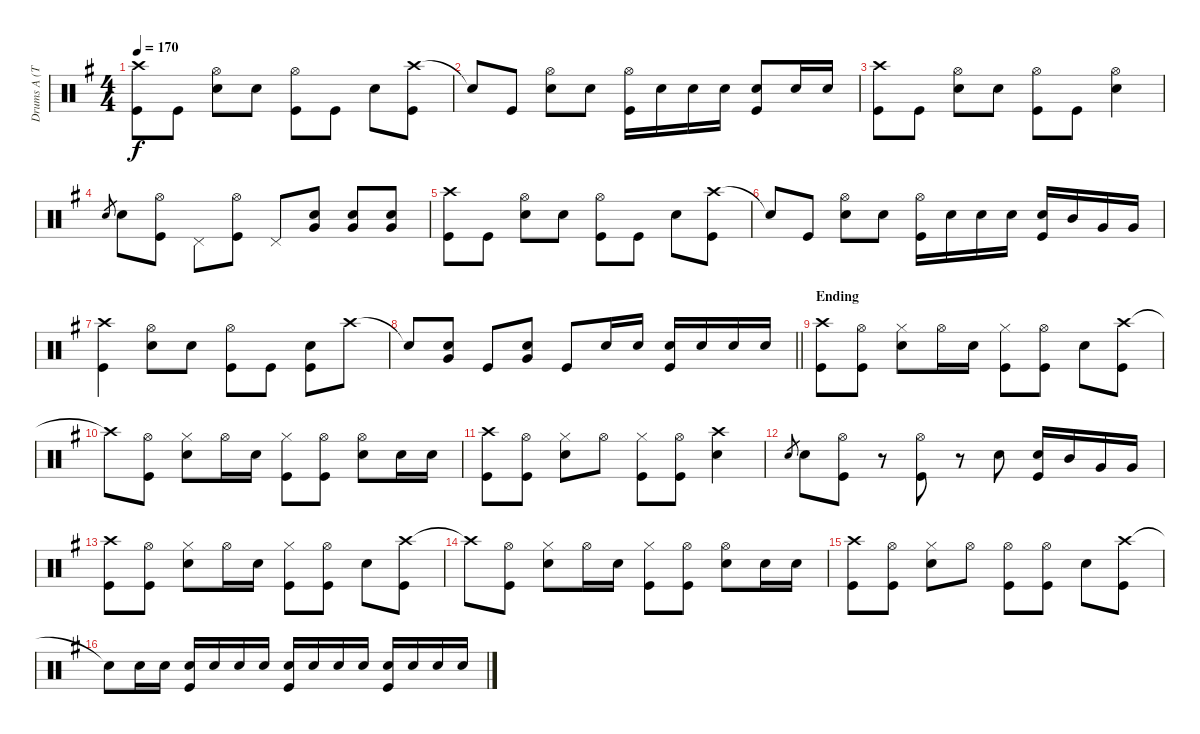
\track ("Drums A (Tainaka Ritsu)" "Drums A (T") {instrument percussion}
\staff {score}
\articulation defaults
\ts (4 4)
\tempo 170
\clef neutral
\ks g
("Crash high (hit)" "Kick (hit)").8{dy f} "Kick (hit)".8 ("Hi-Hat (open)" "Snare (hit) 2").8 "Snare (hit) 2".8 ("Hi-Hat (open)" "Kick (hit)").8 "Kick (hit)".8 "Snare (hit) 2".8 ("Crash high (hit)" "Kick (hit)").8 |
"Snare (hit)"{t}.8 "Kick (hit)".8 ("Hi-Hat (open)" "Snare (hit) 2").8 "Snare (hit) 2".8 ("Hi-Hat (open)" "Kick (hit)").16 "Snare (hit) 2".16 "Snare (hit) 2".16 "Snare (hit) 2".16 ("Snare (hit) 2" "Kick (hit)").8 "Snare (hit) 2".16 "Snare (hit) 2".16 |
("Crash high (hit)" "Kick (hit)").8 "Kick (hit)".8 ("Hi-Hat (open)" "Snare (hit) 2").8 "Snare (hit) 2".8 ("Hi-Hat (open)" "Kick (hit)").8 "Kick (hit)".8 ("Hi-Hat (open)" "Snare (hit) 2").4 |
"Snare (hit) 2".8{gr} "Snare (hit) 2".8 ("Hi-Hat (open)" "Kick (hit)").8 "Pedal Hi-Hat (hit)".8 ("Hi-Hat (open)" "Kick (hit)").8 "Pedal Hi-Hat (hit)".8 ("Snare (hit) 2" "Very Low Tom (hit)").8 ("Snare (hit) 2" "Very Low Tom (hit)").8 ("Snare (hit) 2" "Very Low Tom (hit)").8 |
("Crash high (hit)" "Kick (hit)").8 "Kick (hit)".8 ("Hi-Hat (open)" "Snare (hit) 2").8 "Snare (hit) 2".8 ("Hi-Hat (open)" "Kick (hit)").8 "Kick (hit)".8 "Snare (hit) 2".8 ("Crash high (hit)" "Kick (hit)").8 |
"Snare (hit)"{t}.8 "Kick (hit)".8 ("Hi-Hat (open)" "Snare (hit) 2").8 "Snare (hit) 2".8 ("Hi-Hat (open)" "Kick (hit)").16 "Snare (hit) 2".16 "Snare (hit) 2".16 "Snare (hit) 2".16 ("Snare (hit) 2" "Kick (hit)").16 "Mid Tom (hit)".16 "Very Low Tom (hit)".16 "Very Low Tom (hit)".16 |
("Crash high (hit)" "Kick (hit)").4 ("Hi-Hat (open)" "Snare (hit) 2").8 "Snare (hit) 2".8 ("Hi-Hat (open)" "Kick (hit)").8 "Kick (hit)".8 ("Snare (hit) 2" "Kick (hit)").8 "Crash high (hit)".8 |
\barLineRight lightlight "Snare (hit)"{t}.8
("Snare (hit) 2" "Very Low Tom (hit)").8 "Kick (hit)".8 ("Snare (hit) 2" "Very Low Tom (hit)").8 "Kick (hit)".8 "Snare (hit) 2".16 "Snare (hit) 2".16 ("Snare (hit) 2" "Kick (hit)").16 "Snare (hit) 2".16 "Snare (hit) 2".16 "Snare (hit) 2".16 |
\section ("" "Ending")
("Crash high (hit)" "Kick (hit)").8 ("Hi-Hat (open)" "Kick (hit)").8 ("Hi-Hat (closed)" "Snare (hit) 2").8 "Hi-Hat (open)".16 "Snare (hit) 2".16 ("Hi-Hat (closed)" "Kick (hit)").8 ("Hi-Hat (open)" "Kick (hit)").8 "Snare (hit) 2".8 ("Crash high (hit)" "Kick (hit)").8 |
"Crash high (hit)"{t}.8 ("Hi-Hat (open)" "Kick (hit)").8 ("Hi-Hat (closed)" "Snare (hit) 2").8 "Hi-Hat (open)".16 "Snare (hit) 2".16 ("Hi-Hat (closed)" "Kick (hit)").8 ("Hi-Hat (open)" "Kick (hit)").8 ("Hi-Hat (open)" "Snare (hit) 2").8 "Snare (hit) 2".16 "Snare (hit) 2".16 |
("Crash high (hit)" "Kick (hit)").8 ("Hi-Hat (open)" "Kick (hit)").8 ("Hi-Hat (closed)" "Snare (hit) 2").8 "Hi-Hat (open)".8 ("Hi-Hat (closed)" "Kick (hit)").8 ("Hi-Hat (open)" "Kick (hit)").8 ("Crash high (hit)" "Snare (hit) 2").4 |
"Snare (hit) 2".8{gr} "Snare (hit) 2".8 ("Hi-Hat (open)" "Kick (hit)").8 r.8 ("Hi-Hat (open)" "Kick (hit)").8 r.8 "Snare (hit) 2".8 ("Snare (hit) 2" "Kick (hit)").16 "Mid Tom (hit)".16 "Very Low Tom (hit)".16 "Very Low Tom (hit)".16 |
("Crash high (hit)" "Kick (hit)").8 ("Hi-Hat (open)" "Kick (hit)").8 ("Hi-Hat (closed)" "Snare (hit) 2").8 "Hi-Hat (open)".16 "Snare (hit) 2".16 ("Hi-Hat (closed)" "Kick (hit)").8 ("Hi-Hat (open)" "Kick (hit)").8 "Snare (hit) 2".8 ("Crash high (hit)" "Kick (hit)").8 |
"Crash high (hit)"{t}.8 ("Hi-Hat (open)" "Kick (hit)").8 ("Hi-Hat (closed)" "Snare (hit) 2").8 "Hi-Hat (open)".16 "Snare (hit) 2".16 ("Hi-Hat (closed)" "Kick (hit)").8 ("Hi-Hat (open)" "Kick (hit)").8 ("Hi-Hat (open)" "Snare (hit) 2").8 "Snare (hit) 2".16 "Snare (hit) 2".16 |
("Crash high (hit)" "Kick (hit)").8 ("Hi-Hat (open)" "Kick (hit)").8 ("Hi-Hat (closed)" "Snare (hit) 2").8 "Hi-Hat (open)".8 ("Hi-Hat (open)" "Kick (hit)").8 ("Hi-Hat (open)" "Kick (hit)").8 "Snare (hit) 2".8 ("Crash high (hit)" "Kick (hit)").8 |
"Snare (hit)"{t}.8 "Snare (hit) 2".16 "Snare (hit) 2".16 ("Snare (hit) 2" "Kick (hit)").16 "Snare (hit) 2".16 "Snare (hit) 2".16 "Snare (hit) 2".16 ("Snare (hit) 2" "Kick (hit)").16 "Snare (hit) 2".16 "Snare (hit) 2".16 "Snare (hit) 2".16 ("Snare (hit) 2" "Kick (hit)").16 "Snare (hit) 2".16 "Snare (hit) 2".16 "Snare (hit) 2".16
